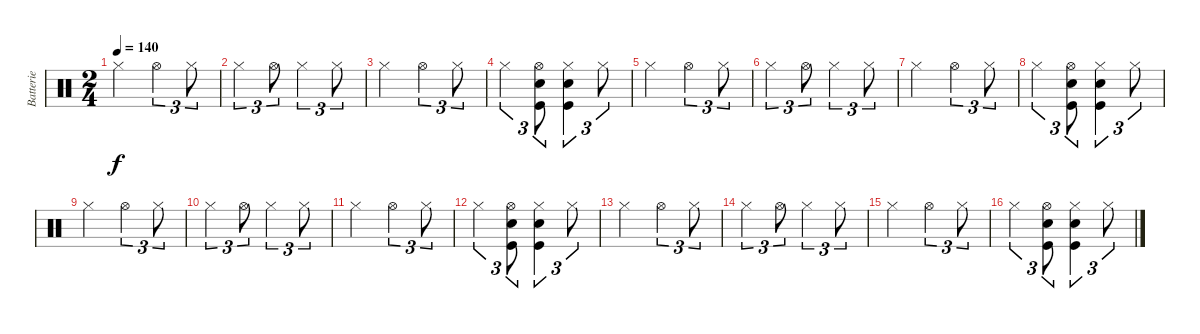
\track ("Batterie" "Batterie") {instrument percussion}
\staff {score}
\articulation defaults
\ts (2 4)
\tempo 140
\clef neutral
\ks c "Hi-Hat (closed)".4{dy f} "Hi-Hat (open)".4{tu (3 2)} "Hi-Hat (closed)".8{tu (3 2)}
|
"Hi-Hat (closed)".4{tu (3 2)} "Hi-Hat (open)".8{tu (3 2)} "Hi-Hat (closed)".4{tu (3 2)} "Hi-Hat (closed)".8{tu (3 2)} |
"Hi-Hat (closed)".4 "Hi-Hat (open)".4{tu (3 2)} "Hi-Hat (closed)".8{tu (3 2)} |
"Hi-Hat (closed)".4{tu (3 2)} ("Hi-Hat (open)" "Snare (hit) 2" "Kick (hit)").8{tu (3 2)} ("Hi-Hat (closed)" "Snare (hit) 2" "Kick (hit)").4{tu (3 2)} "Hi-Hat (closed)".8{tu (3 2)} |
"Hi-Hat (closed)".4 "Hi-Hat (open)".4{tu (3 2)} "Hi-Hat (closed)".8{tu (3 2)} |
"Hi-Hat (closed)".4{tu (3 2)} "Hi-Hat (open)".8{tu (3 2)} "Hi-Hat (closed)".4{tu (3 2)} "Hi-Hat (closed)".8{tu (3 2)} |
"Hi-Hat (closed)".4 "Hi-Hat (open)".4{tu (3 2)} "Hi-Hat (closed)".8{tu (3 2)} |
"Hi-Hat (closed)".4{tu (3 2)} ("Hi-Hat (open)" "Snare (hit) 2" "Kick (hit)").8{tu (3 2)} ("Hi-Hat (closed)" "Snare (hit) 2" "Kick (hit)").4{tu (3 2)} "Hi-Hat (closed)".8{tu (3 2)} |
"Hi-Hat (closed)".4 "Hi-Hat (open)".4{tu (3 2)} "Hi-Hat (closed)".8{tu (3 2)} |
"Hi-Hat (closed)".4{tu (3 2)} "Hi-Hat (open)".8{tu (3 2)} "Hi-Hat (closed)".4{tu (3 2)} "Hi-Hat (closed)".8{tu (3 2)} |
"Hi-Hat (closed)".4 "Hi-Hat (open)".4{tu (3 2)} "Hi-Hat (closed)".8{tu (3 2)} |
"Hi-Hat (closed)".4{tu (3 2)} ("Hi-Hat (open)" "Snare (hit) 2" "Kick (hit)").8{tu (3 2)} ("Hi-Hat (closed)" "Snare (hit) 2" "Kick (hit)").4{tu (3 2)} "Hi-Hat (closed)".8{tu (3 2)} |
"Hi-Hat (closed)".4 "Hi-Hat (open)".4{tu (3 2)} "Hi-Hat (closed)".8{tu (3 2)} |
"Hi-Hat (closed)".4{tu (3 2)} "Hi-Hat (open)".8{tu (3 2)} "Hi-Hat (closed)".4{tu (3 2)} "Hi-Hat (closed)".8{tu (3 2)} |
"Hi-Hat (closed)".4 "Hi-Hat (open)".4{tu (3 2)} "Hi-Hat (closed)".8{tu (3 2)} |
"Hi-Hat (closed)".4{tu (3 2)} ("Hi-Hat (open)" "Snare (hit) 2" "Kick (hit)").8{tu (3 2)} ("Hi-Hat (closed)" "Snare (hit) 2" "Kick (hit)").4{tu (3 2)} "Hi-Hat (closed)".8{tu (3 2)}
